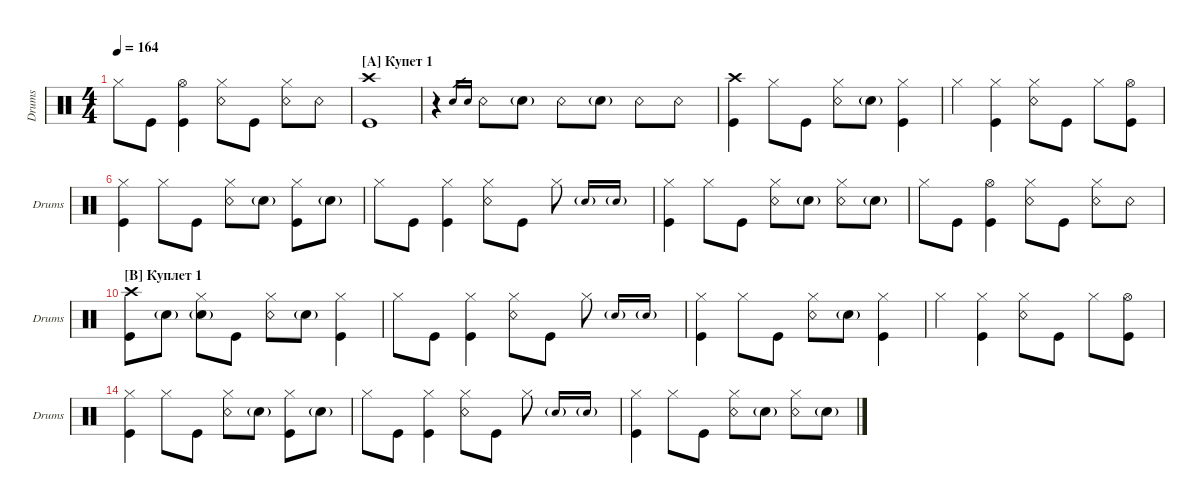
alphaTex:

\defaultSystemsLayout 4
\hideDynamics
\bracketExtendMode groupsimilarinstruments
\singleTrackTrackNamePolicy allsystems
\multiTrackTrackNamePolicy allsystems
\otherSystemsTrackNameOrientation horizontal
\defaultBarNumberDisplay FirstOfSystem
\track ("Drumkit" "Drums") {instrument percussion}
\staff {score}
\articulation defaults
\ts (4 4)
\tempo 164
\clef neutral
\ks c "Hi-Hat (closed)".8{dy f} "Kick (hit)".8
("Kick (hit)" "Hi-Hat (open)").4 ("Snare (rim shot)" "Hi-Hat (closed)").8 "Kick (hit)".8 ("Snare (rim shot)" "Hi-Hat (closed)").8 "Snare (rim shot)".8 |
\section ("A" "Купет 1")
("Kick (hit)" "Crash high (hit)").1 |
r.4 "Snare (hit) 2".16{gr} "Snare (hit) 2".16{gr} "Snare (rim shot)".8 "Snare (hit) 2"{g}.8 "Snare (rim shot)".8 "Snare (hit) 2"{g}.8 "Snare (rim shot)".8 "Snare (rim shot)".8 |
("Kick (hit)" "Crash high (hit)").4 "Hi-Hat (closed)".8 "Kick (hit)".8 ("Hi-Hat (closed)" "Snare (rim shot)").8 "Snare (hit) 2"{g}.8 ("Hi-Hat (closed)" "Kick (hit)").4 |
"Hi-Hat (closed)".4 ("Kick (hit)" "Hi-Hat (closed)").4 ("Snare (rim shot)" "Hi-Hat (closed)").8 "Kick (hit)".8 "Hi-Hat (closed)".8 ("Kick (hit)" "Hi-Hat (open)").8 |
("Kick (hit)" "Hi-Hat (closed)").4 "Hi-Hat (closed)".8 "Kick (hit)".8 ("Hi-Hat (closed)" "Snare (rim shot)").8 "Snare (hit) 2"{g}.8 ("Hi-Hat (closed)" "Kick (hit)").8 "Snare (hit) 2"{g}.8 |
"Hi-Hat (closed)".8 "Kick (hit)".8 ("Kick (hit)" "Hi-Hat (closed)").4 ("Snare (rim shot)" "Hi-Hat (closed)").8 "Kick (hit)".8 "Hi-Hat (closed)".8 "Snare (hit) 2"{g}.16{gr onbeat} "Snare (hit) 2"{g}.16{gr onbeat} |
("Hi-Hat (closed)" "Kick (hit)").4 "Hi-Hat (closed)".8 "Kick (hit)".8 ("Hi-Hat (closed)" "Snare (rim shot)").8 "Snare (hit) 2"{g}.8 ("Hi-Hat (closed)" "Snare (rim shot)").8 "Snare (hit) 2"{g}.8 |
"Hi-Hat (closed)".8 "Kick (hit)".8 ("Kick (hit)" "Hi-Hat (open)").4 ("Snare (rim shot)" "Hi-Hat (closed)").8 "Kick (hit)".8 ("Snare (rim shot)" "Hi-Hat (closed)").8 "Snare (rim shot)".8 |
\section ("B" "Куплет 1")
("Crash high (hit)" "Kick (hit)").8 "Snare (hit) 2"{g}.8 ("Hi-Hat (closed)" "Snare (hit) 2"{g}).8 "Kick (hit)".8 ("Hi-Hat (closed)" "Snare (rim shot)").8 "Snare (hit) 2"{g}.8 ("Hi-Hat (closed)" "Kick (hit)").4 |
"Hi-Hat (closed)".8 "Kick (hit)".8 ("Kick (hit)" "Hi-Hat (closed)").4 ("Snare (rim shot)" "Hi-Hat (closed)").8 "Kick (hit)".8 "Hi-Hat (closed)".8 "Snare (hit) 2"{g}.16{gr onbeat} "Snare (hit) 2"{g}.16{gr onbeat} |
("Kick (hit)" "Hi-Hat (closed)").4 "Hi-Hat (closed)".8 "Kick (hit)".8 ("Hi-Hat (closed)" "Snare (rim shot)").8 "Snare (hit) 2"{g}.8 ("Hi-Hat (closed)" "Kick (hit)").4 |
"Hi-Hat (closed)".4 ("Kick (hit)" "Hi-Hat (closed)").4 ("Snare (rim shot)" "Hi-Hat (closed)").8 "Kick (hit)".8 "Hi-Hat (closed)".8 ("Kick (hit)" "Hi-Hat (open)").8 |
("Kick (hit)" "Hi-Hat (closed)").4 "Hi-Hat (closed)".8 "Kick (hit)".8 ("Hi-Hat (closed)" "Snare (rim shot)").8 "Snare (hit) 2"{g}.8 ("Hi-Hat (closed)" "Kick (hit)").8 "Snare (hit) 2"{g}.8 |
"Hi-Hat (closed)".8 "Kick (hit)".8 ("Kick (hit)" "Hi-Hat (closed)").4 ("Snare (rim shot)" "Hi-Hat (closed)").8 "Kick (hit)".8 "Hi-Hat (closed)".8 "Snare (hit) 2"{g}.16{gr onbeat} "Snare (hit) 2"{g}.16{gr onbeat} |
("Hi-Hat (closed)" "Kick (hit)").4 "Hi-Hat (closed)".8 "Kick (hit)".8 ("Hi-Hat (closed)" "Snare (rim shot)").8 "Snare (hit) 2"{g}.8 ("Hi-Hat (closed)" "Snare (rim shot)").8 "Snare (hit) 2"{g}.8
